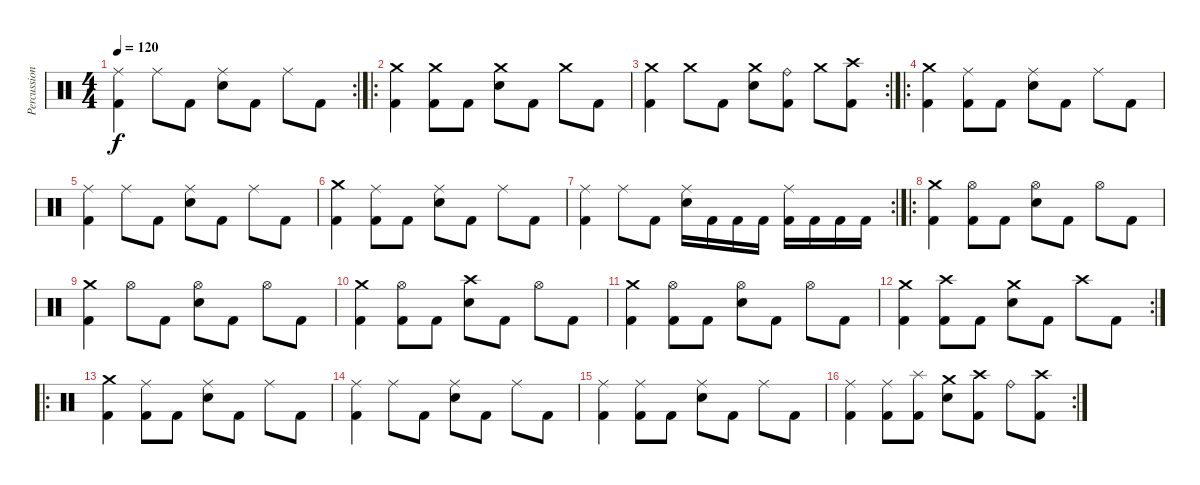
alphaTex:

\track ("Percussion" "Percussion") {instrument percussion}
\staff {score}
\articulation defaults
\rc 2
\ts (4 4)
\tempo 120
\clef neutral
\ks c
("Ride (middle)" "Kick (hit) 2").4{dy f} "Ride (middle)".8 "Kick (hit) 2".8 ("Ride (middle)" "Electric Snare (hit)").8 "Kick (hit) 2".8 "Ride (middle)".8 "Kick (hit) 2".8 |
\ro
("Crash medium (hit)" "Kick (hit) 2").4 ("Crash medium (hit)" "Kick (hit) 2").8 "Kick (hit) 2".8 ("Crash medium (hit)" "Electric Snare (hit)").8 "Kick (hit) 2".8 "Crash medium (hit)".8 "Kick (hit) 2".8 |
\rc 2
("Crash medium (hit)" "Kick (hit) 2").4 "Crash medium (hit)".8 "Kick (hit) 2".8 ("Crash medium (hit)" "Electric Snare (hit)").8 ("Ride (bell)" "Kick (hit) 2").8 "Crash medium (hit)".8 ("Crash high (hit)" "Kick (hit) 2").8 |
\ro
("Crash medium (hit)" "Kick (hit) 2").4 ("Ride (middle)" "Kick (hit) 2").8 "Kick (hit) 2".8 ("Ride (middle)" "Electric Snare (hit)").8 "Kick (hit) 2".8 "Ride (middle)".8 "Kick (hit) 2".8 |
("Ride (middle)" "Kick (hit) 2").4 "Ride (middle)".8 "Kick (hit) 2".8 ("Ride (middle)" "Electric Snare (hit)").8 "Kick (hit) 2".8 "Ride (middle)".8 "Kick (hit) 2".8 |
("Crash medium (hit)" "Kick (hit) 2").4 ("Ride (middle)" "Kick (hit) 2").8 "Kick (hit) 2".8 ("Ride (middle)" "Electric Snare (hit)").8 "Kick (hit) 2".8 "Ride (middle)".8 "Kick (hit) 2".8 |
\rc 2
("Ride (middle)" "Kick (hit) 2").4 "Ride (middle)".8 "Kick (hit) 2".8 ("Ride (middle)" "Electric Snare (hit)").16 "Kick (hit) 2".16 "Kick (hit) 2".16 "Kick (hit) 2".16 ("Ride (middle)" "Kick (hit) 2").16 "Kick (hit) 2".16 "Kick (hit) 2".16 "Kick (hit) 2".16 |
\ro
("Crash medium (hit)" "Kick (hit) 2").4 ("Hi-Hat (open)" "Kick (hit) 2").8 "Kick (hit) 2".8 ("Hi-Hat (open)" "Electric Snare (hit)").8 "Kick (hit) 2".8 "Hi-Hat (open)".8 "Kick (hit) 2".8 |
("Crash medium (hit)" "Kick (hit) 2").4 "Hi-Hat (open)".8 "Kick (hit) 2".8 ("Hi-Hat (open)" "Electric Snare (hit)").8 "Kick (hit) 2".8 "Hi-Hat (open)".8 "Kick (hit) 2".8 |
("Crash medium (hit)" "Kick (hit) 2").4 ("Hi-Hat (open)" "Kick (hit) 2").8 "Kick (hit) 2".8 ("Crash high (hit)" "Electric Snare (hit)").8 "Kick (hit) 2".8 "Hi-Hat (open)".8 "Kick (hit) 2".8 |
("Crash medium (hit)" "Kick (hit) 2").4 ("Hi-Hat (open)" "Kick (hit) 2").8 "Kick (hit) 2".8 ("Hi-Hat (open)" "Electric Snare (hit)").8 "Kick (hit) 2".8 "Hi-Hat (open)".8 "Kick (hit) 2".8 |
\rc 2
("Crash medium (hit)" "Kick (hit) 2").4 ("Crash high (hit)" "Kick (hit) 2").8 "Kick (hit) 2".8 ("Crash medium (hit)" "Electric Snare (hit)").8 "Kick (hit) 2".8 "Crash high (hit)".8 "Kick (hit) 2".8 |
\ro
("Crash medium (hit)" "Kick (hit) 2").4 ("Ride (middle)" "Kick (hit) 2").8 "Kick (hit) 2".8 ("Ride (middle)" "Electric Snare (hit)").8 "Kick (hit) 2".8 "Ride (middle)".8 "Kick (hit) 2".8 |
("Ride (middle)" "Kick (hit) 2").4 "Ride (middle)".8 "Kick (hit) 2".8 ("Ride (middle)" "Electric Snare (hit)").8 "Kick (hit) 2".8 "Ride (middle)".8 "Kick (hit) 2".8 |
("Ride (middle)" "Kick (hit) 2").4 ("Ride (middle)" "Kick (hit) 2").8 "Kick (hit) 2".8 ("Ride (middle)" "Electric Snare (hit)").8 "Kick (hit) 2".8 "Ride (middle)".8 "Kick (hit) 2".8 |
\rc 2
("Ride (middle)" "Kick (hit) 2").4 ("Ride (middle)" "Kick (hit) 2").8 ("Splash (hit)" "Kick (hit) 2").8 ("Crash medium (hit)" "Electric Snare (hit)").8 ("Crash high (hit)" "Kick (hit) 2").8 "Ride (bell)".8 ("Crash high (hit)" "Kick (hit) 2").8
